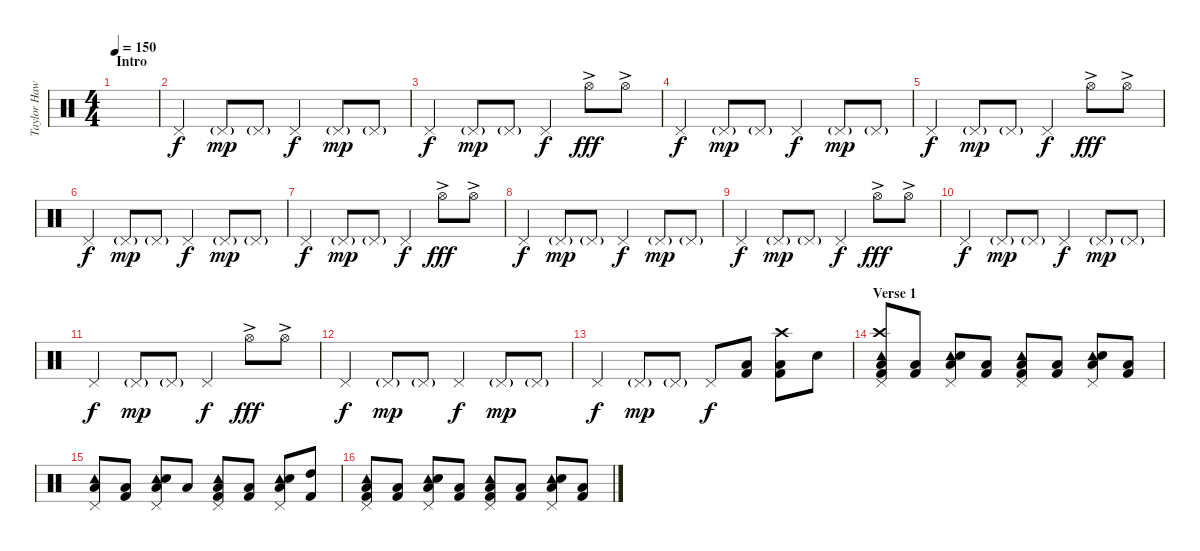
\track ("Taylor Hawkins" "Taylor Haw") {instrument percussion}
\staff {score}
\articulation defaults
\ts (4 4)
\section ("" "Intro")
\tempo 150
\clef neutral
\ks c
|
"Pedal Hi-Hat (hit)".4 "Pedal Hi-Hat (hit)"{g}.8{dy mp} "Pedal Hi-Hat (hit)"{g}.8 "Pedal Hi-Hat (hit)".4{dy f} "Pedal Hi-Hat (hit)"{g}.8{dy mp} "Pedal Hi-Hat (hit)"{g}.8 |
"Pedal Hi-Hat (hit)".4{dy f} "Pedal Hi-Hat (hit)"{g}.8{dy mp} "Pedal Hi-Hat (hit)"{g}.8 "Pedal Hi-Hat (hit)".4{dy f} "Hi-Hat (open)"{ac}.8{dy fff} "Hi-Hat (open)"{ac}.8 |
"Pedal Hi-Hat (hit)".4{dy f} "Pedal Hi-Hat (hit)"{g}.8{dy mp} "Pedal Hi-Hat (hit)"{g}.8 "Pedal Hi-Hat (hit)".4{dy f} "Pedal Hi-Hat (hit)"{g}.8{dy mp} "Pedal Hi-Hat (hit)"{g}.8 |
"Pedal Hi-Hat (hit)".4{dy f} "Pedal Hi-Hat (hit)"{g}.8{dy mp} "Pedal Hi-Hat (hit)"{g}.8 "Pedal Hi-Hat (hit)".4{dy f} "Hi-Hat (open)"{ac}.8{dy fff} "Hi-Hat (open)"{ac}.8 |
"Pedal Hi-Hat (hit)".4{dy f} "Pedal Hi-Hat (hit)"{g}.8{dy mp} "Pedal Hi-Hat (hit)"{g}.8 "Pedal Hi-Hat (hit)".4{dy f} "Pedal Hi-Hat (hit)"{g}.8{dy mp} "Pedal Hi-Hat (hit)"{g}.8 |
"Pedal Hi-Hat (hit)".4{dy f} "Pedal Hi-Hat (hit)"{g}.8{dy mp} "Pedal Hi-Hat (hit)"{g}.8 "Pedal Hi-Hat (hit)".4{dy f} "Hi-Hat (open)"{ac}.8{dy fff} "Hi-Hat (open)"{ac}.8 |
"Pedal Hi-Hat (hit)".4{dy f} "Pedal Hi-Hat (hit)"{g}.8{dy mp} "Pedal Hi-Hat (hit)"{g}.8 "Pedal Hi-Hat (hit)".4{dy f} "Pedal Hi-Hat (hit)"{g}.8{dy mp} "Pedal Hi-Hat (hit)"{g}.8 |
"Pedal Hi-Hat (hit)".4{dy f} "Pedal Hi-Hat (hit)"{g}.8{dy mp} "Pedal Hi-Hat (hit)"{g}.8 "Pedal Hi-Hat (hit)".4{dy f} "Hi-Hat (open)"{ac}.8{dy fff} "Hi-Hat (open)"{ac}.8 |
"Pedal Hi-Hat (hit)".4{dy f} "Pedal Hi-Hat (hit)"{g}.8{dy mp} "Pedal Hi-Hat (hit)"{g}.8 "Pedal Hi-Hat (hit)".4{dy f} "Pedal Hi-Hat (hit)"{g}.8{dy mp} "Pedal Hi-Hat (hit)"{g}.8 |
"Pedal Hi-Hat (hit)".4{dy f} "Pedal Hi-Hat (hit)"{g}.8{dy mp} "Pedal Hi-Hat (hit)"{g}.8 "Pedal Hi-Hat (hit)".4{dy f} "Hi-Hat (open)"{ac}.8{dy fff} "Hi-Hat (open)"{ac}.8 |
"Pedal Hi-Hat (hit)".4{dy f} "Pedal Hi-Hat (hit)"{g}.8{dy mp} "Pedal Hi-Hat (hit)"{g}.8 "Pedal Hi-Hat (hit)".4{dy f} "Pedal Hi-Hat (hit)"{g}.8{dy mp} "Pedal Hi-Hat (hit)"{g}.8 |
"Pedal Hi-Hat (hit)".4{dy f} "Pedal Hi-Hat (hit)"{g}.8{dy mp} "Pedal Hi-Hat (hit)"{g}.8 "Pedal Hi-Hat (hit)".8{dy f} ("Low Floor Tom (hit)" "Kick (hit) 2").8 ("Crash high (hit)" "Low Floor Tom (hit)" "Kick (hit) 2").8 "Snare (hit) 2".8 |
\section ("" "Verse 1")
("Crash high (hit)" "Pedal Hi-Hat (hit)" "Tambourine (hit)" "Low Floor Tom (hit)" "Kick (hit) 2").8 ("Low Floor Tom (hit)" "Kick (hit) 2").8 ("Pedal Hi-Hat (hit)" "Tambourine (hit)" "Low Floor Tom (hit)" "Snare (hit) 2").8 ("Low Floor Tom (hit)" "Kick (hit) 2").8 ("Pedal Hi-Hat (hit)" "Tambourine (hit)" "Low Floor Tom (hit)" "Kick (hit) 2").8 ("Low Floor Tom (hit)" "Kick (hit) 2").8 ("Pedal Hi-Hat (hit)" "Tambourine (hit)" "Low Floor Tom (hit)" "Snare (hit) 2").8 ("Low Floor Tom (hit)" "Kick (hit) 2").8 |
("Pedal Hi-Hat (hit)" "Tambourine (hit)" "Low Floor Tom (hit)").8 ("Low Floor Tom (hit)" "Kick (hit) 2").8 ("Pedal Hi-Hat (hit)" "Tambourine (hit)" "Low Floor Tom (hit)" "Snare (hit) 2").8 "Low Floor Tom (hit)".8 ("Pedal Hi-Hat (hit)" "Tambourine (hit)" "Low Floor Tom (hit)" "Kick (hit) 2").8 ("Low Floor Tom (hit)" "Kick (hit) 2").8 ("Pedal Hi-Hat (hit)" "Tambourine (hit)" "Low Floor Tom (hit)" "Snare (hit) 2").8 ("High Tom (hit)" "Kick (hit) 2").8 |
("Pedal Hi-Hat (hit)" "Tambourine (hit)" "Low Floor Tom (hit)" "Kick (hit) 2").8 ("Low Floor Tom (hit)" "Kick (hit) 2").8 ("Pedal Hi-Hat (hit)" "Tambourine (hit)" "Low Floor Tom (hit)" "Snare (hit) 2").8 ("Low Floor Tom (hit)" "Kick (hit) 2").8 ("Pedal Hi-Hat (hit)" "Tambourine (hit)" "Low Floor Tom (hit)" "Kick (hit) 2").8 ("Low Floor Tom (hit)" "Kick (hit) 2").8 ("Pedal Hi-Hat (hit)" "Tambourine (hit)" "Low Floor Tom (hit)" "Snare (hit) 2").8 ("Low Floor Tom (hit)" "Kick (hit) 2").8
